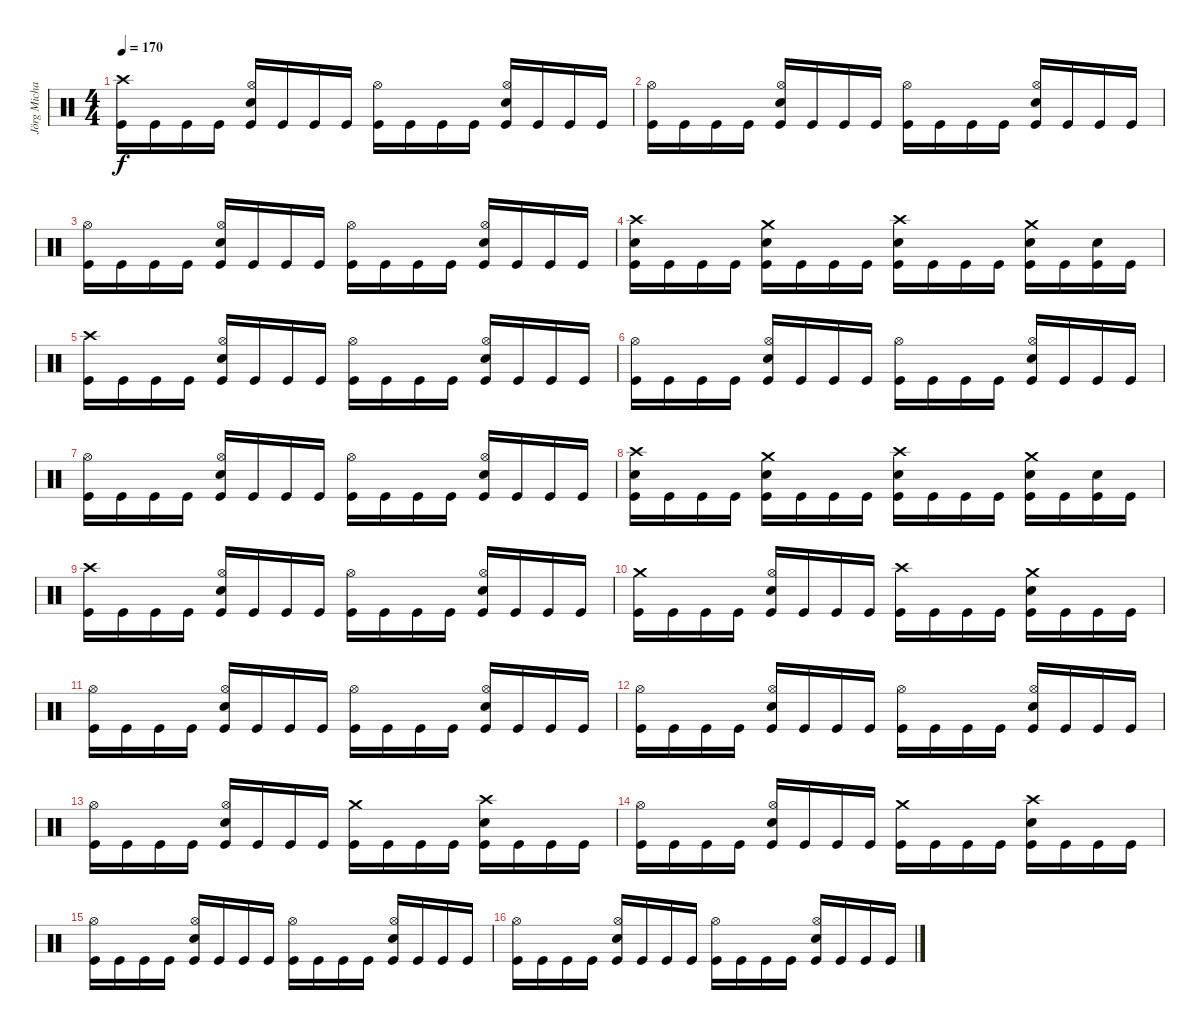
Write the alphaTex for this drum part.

\track ("Jörg Michael" "Jörg Micha") {instrument percussion}
\staff {score}
\articulation defaults
\ts (4 4)
\tempo 170
\clef neutral
\ks c
("Crash high (hit)" "Kick (hit)").16{dy f} "Kick (hit)".16 "Kick (hit)".16 "Kick (hit)".16 ("Hi-Hat (open)" "Electric Snare (hit)" "Kick (hit)").16 "Kick (hit)".16 "Kick (hit)".16 "Kick (hit)".16 ("Hi-Hat (open)" "Kick (hit)").16 "Kick (hit)".16 "Kick (hit)".16 "Kick (hit)".16 ("Hi-Hat (open)" "Electric Snare (hit)" "Kick (hit)").16 "Kick (hit)".16 "Kick (hit)".16 "Kick (hit)".16 |
("Hi-Hat (open)" "Kick (hit)").16 "Kick (hit)".16 "Kick (hit)".16 "Kick (hit)".16 ("Hi-Hat (open)" "Electric Snare (hit)" "Kick (hit)").16 "Kick (hit)".16 "Kick (hit)".16 "Kick (hit)".16 ("Hi-Hat (open)" "Kick (hit)").16 "Kick (hit)".16 "Kick (hit)".16 "Kick (hit)".16 ("Hi-Hat (open)" "Electric Snare (hit)" "Kick (hit)").16 "Kick (hit)".16 "Kick (hit)".16 "Kick (hit)".16 |
("Hi-Hat (open)" "Kick (hit)").16 "Kick (hit)".16 "Kick (hit)".16 "Kick (hit)".16 ("Hi-Hat (open)" "Electric Snare (hit)" "Kick (hit)").16 "Kick (hit)".16 "Kick (hit)".16 "Kick (hit)".16 ("Hi-Hat (open)" "Kick (hit)").16 "Kick (hit)".16 "Kick (hit)".16 "Kick (hit)".16 ("Hi-Hat (open)" "Electric Snare (hit)" "Kick (hit)").16 "Kick (hit)".16 "Kick (hit)".16 "Kick (hit)".16 |
("Crash high (hit)" "Electric Snare (hit)" "Kick (hit)").16 "Kick (hit)".16 "Kick (hit)".16 "Kick (hit)".16 ("Crash medium (hit)" "Electric Snare (hit)" "Kick (hit)").16 "Kick (hit)".16 "Kick (hit)".16 "Kick (hit)".16 ("Crash high (hit)" "Electric Snare (hit)" "Kick (hit)").16 "Kick (hit)".16 "Kick (hit)".16 "Kick (hit)".16 ("Crash medium (hit)" "Electric Snare (hit)" "Kick (hit)").16 "Kick (hit)".16 ("Electric Snare (hit)" "Kick (hit)").16 "Kick (hit)".16 |
("Crash high (hit)" "Kick (hit)").16 "Kick (hit)".16 "Kick (hit)".16 "Kick (hit)".16 ("Hi-Hat (open)" "Electric Snare (hit)" "Kick (hit)").16 "Kick (hit)".16 "Kick (hit)".16 "Kick (hit)".16 ("Hi-Hat (open)" "Kick (hit)").16 "Kick (hit)".16 "Kick (hit)".16 "Kick (hit)".16 ("Hi-Hat (open)" "Electric Snare (hit)" "Kick (hit)").16 "Kick (hit)".16 "Kick (hit)".16 "Kick (hit)".16 |
("Hi-Hat (open)" "Kick (hit)").16 "Kick (hit)".16 "Kick (hit)".16 "Kick (hit)".16 ("Hi-Hat (open)" "Electric Snare (hit)" "Kick (hit)").16 "Kick (hit)".16 "Kick (hit)".16 "Kick (hit)".16 ("Hi-Hat (open)" "Kick (hit)").16 "Kick (hit)".16 "Kick (hit)".16 "Kick (hit)".16 ("Hi-Hat (open)" "Electric Snare (hit)" "Kick (hit)").16 "Kick (hit)".16 "Kick (hit)".16 "Kick (hit)".16 |
("Hi-Hat (open)" "Kick (hit)").16 "Kick (hit)".16 "Kick (hit)".16 "Kick (hit)".16 ("Hi-Hat (open)" "Electric Snare (hit)" "Kick (hit)").16 "Kick (hit)".16 "Kick (hit)".16 "Kick (hit)".16 ("Hi-Hat (open)" "Kick (hit)").16 "Kick (hit)".16 "Kick (hit)".16 "Kick (hit)".16 ("Hi-Hat (open)" "Electric Snare (hit)" "Kick (hit)").16 "Kick (hit)".16 "Kick (hit)".16 "Kick (hit)".16 |
("Crash high (hit)" "Electric Snare (hit)" "Kick (hit)").16 "Kick (hit)".16 "Kick (hit)".16 "Kick (hit)".16 ("Crash medium (hit)" "Electric Snare (hit)" "Kick (hit)").16 "Kick (hit)".16 "Kick (hit)".16 "Kick (hit)".16 ("Crash high (hit)" "Electric Snare (hit)" "Kick (hit)").16 "Kick (hit)".16 "Kick (hit)".16 "Kick (hit)".16 ("Crash medium (hit)" "Electric Snare (hit)" "Kick (hit)").16 "Kick (hit)".16 ("Electric Snare (hit)" "Kick (hit)").16 "Kick (hit)".16 |
("Crash high (hit)" "Kick (hit)").16 "Kick (hit)".16 "Kick (hit)".16 "Kick (hit)".16 ("Hi-Hat (open)" "Electric Snare (hit)" "Kick (hit)").16 "Kick (hit)".16 "Kick (hit)".16 "Kick (hit)".16 ("Hi-Hat (open)" "Kick (hit)").16 "Kick (hit)".16 "Kick (hit)".16 "Kick (hit)".16 ("Hi-Hat (open)" "Electric Snare (hit)" "Kick (hit)").16 "Kick (hit)".16 "Kick (hit)".16 "Kick (hit)".16 |
("Crash medium (hit)" "Kick (hit)").16 "Kick (hit)".16 "Kick (hit)".16 "Kick (hit)".16 ("Hi-Hat (open)" "Electric Snare (hit)" "Kick (hit)").16 "Kick (hit)".16 "Kick (hit)".16 "Kick (hit)".16 ("Crash high (hit)" "Kick (hit)").16 "Kick (hit)".16 "Kick (hit)".16 "Kick (hit)".16 ("Crash medium (hit)" "Electric Snare (hit)" "Kick (hit)").16 "Kick (hit)".16 "Kick (hit)".16 "Kick (hit)".16 |
("Hi-Hat (open)" "Kick (hit)").16 "Kick (hit)".16 "Kick (hit)".16 "Kick (hit)".16 ("Hi-Hat (open)" "Electric Snare (hit)" "Kick (hit)").16 "Kick (hit)".16 "Kick (hit)".16 "Kick (hit)".16 ("Hi-Hat (open)" "Kick (hit)").16 "Kick (hit)".16 "Kick (hit)".16 "Kick (hit)".16 ("Hi-Hat (open)" "Electric Snare (hit)" "Kick (hit)").16 "Kick (hit)".16 "Kick (hit)".16 "Kick (hit)".16 |
("Hi-Hat (open)" "Kick (hit)").16 "Kick (hit)".16 "Kick (hit)".16 "Kick (hit)".16 ("Hi-Hat (open)" "Electric Snare (hit)" "Kick (hit)").16 "Kick (hit)".16 "Kick (hit)".16 "Kick (hit)".16 ("Hi-Hat (open)" "Kick (hit)").16 "Kick (hit)".16 "Kick (hit)".16 "Kick (hit)".16 ("Hi-Hat (open)" "Electric Snare (hit)" "Kick (hit)").16 "Kick (hit)".16 "Kick (hit)".16 "Kick (hit)".16 |
("Hi-Hat (open)" "Kick (hit)").16 "Kick (hit)".16 "Kick (hit)".16 "Kick (hit)".16 ("Hi-Hat (open)" "Electric Snare (hit)" "Kick (hit)").16 "Kick (hit)".16 "Kick (hit)".16 "Kick (hit)".16 ("Crash medium (hit)" "Kick (hit)").16 "Kick (hit)".16 "Kick (hit)".16 "Kick (hit)".16 ("Crash high (hit)" "Electric Snare (hit)" "Kick (hit)").16 "Kick (hit)".16 "Kick (hit)".16 "Kick (hit)".16 |
("Hi-Hat (open)" "Kick (hit)").16 "Kick (hit)".16 "Kick (hit)".16 "Kick (hit)".16 ("Hi-Hat (open)" "Electric Snare (hit)" "Kick (hit)").16 "Kick (hit)".16 "Kick (hit)".16 "Kick (hit)".16 ("Crash medium (hit)" "Kick (hit)").16 "Kick (hit)".16 "Kick (hit)".16 "Kick (hit)".16 ("Crash high (hit)" "Electric Snare (hit)" "Kick (hit)").16 "Kick (hit)".16 "Kick (hit)".16 "Kick (hit)".16 |
("Hi-Hat (open)" "Kick (hit)").16 "Kick (hit)".16 "Kick (hit)".16 "Kick (hit)".16 ("Hi-Hat (open)" "Electric Snare (hit)" "Kick (hit)").16 "Kick (hit)".16 "Kick (hit)".16 "Kick (hit)".16 ("Hi-Hat (open)" "Kick (hit)").16 "Kick (hit)".16 "Kick (hit)".16 "Kick (hit)".16 ("Hi-Hat (open)" "Electric Snare (hit)" "Kick (hit)").16 "Kick (hit)".16 "Kick (hit)".16 "Kick (hit)".16 |
("Hi-Hat (open)" "Kick (hit)").16 "Kick (hit)".16 "Kick (hit)".16 "Kick (hit)".16 ("Hi-Hat (open)" "Electric Snare (hit)" "Kick (hit)").16 "Kick (hit)".16 "Kick (hit)".16 "Kick (hit)".16 ("Hi-Hat (open)" "Kick (hit)").16 "Kick (hit)".16 "Kick (hit)".16 "Kick (hit)".16 ("Hi-Hat (open)" "Electric Snare (hit)" "Kick (hit)").16 "Kick (hit)".16 "Kick (hit)".16 "Kick (hit)".16
